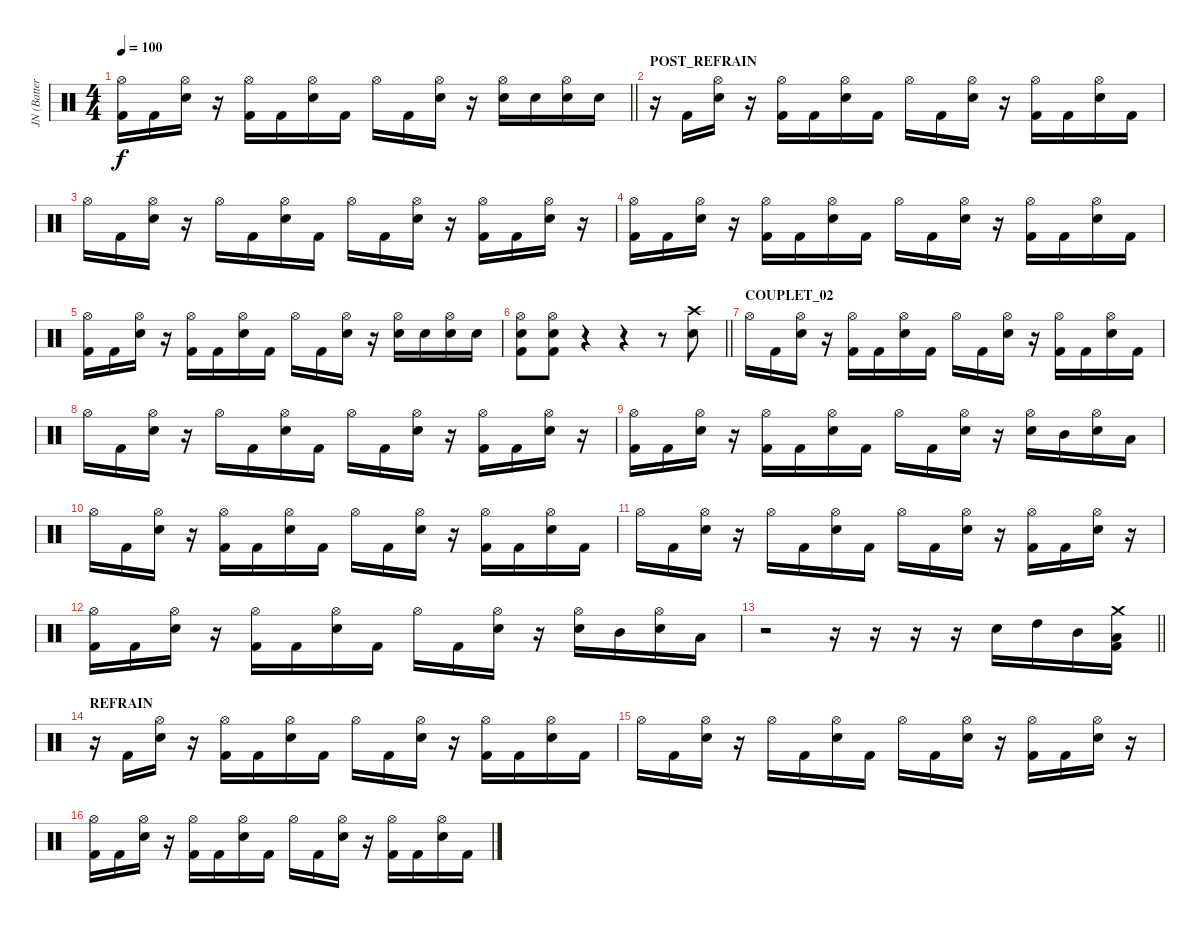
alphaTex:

\track ("JN (Batterie)" "JN (Batter") {instrument percussion}
\staff {score}
\articulation defaults
\ts (4 4)
\tempo 100
\clef neutral
\barLineRight lightlight
\ks c
("Hi-Hat (open)" "Kick (hit) 2").16{dy f} "Kick (hit) 2".16 ("Hi-Hat (open)" "Electric Snare (hit)").16 r.16 ("Hi-Hat (open)" "Kick (hit) 2").16 "Kick (hit) 2".16 ("Hi-Hat (open)" "Electric Snare (hit)").16 "Kick (hit) 2".16 "Hi-Hat (open)".16 "Kick (hit) 2".16 ("Hi-Hat (open)" "Electric Snare (hit)").16 r.16 ("Hi-Hat (open)" "Electric Snare (hit)").16 "Electric Snare (hit)".16 ("Hi-Hat (open)" "Electric Snare (hit)").16 "Electric Snare (hit)".16 |
\section ("" "POST_REFRAIN")
r.16 "Kick (hit) 2".16 ("Hi-Hat (open)" "Electric Snare (hit)").16 r.16 ("Hi-Hat (open)" "Kick (hit) 2").16 "Kick (hit) 2".16 ("Hi-Hat (open)" "Electric Snare (hit)").16 "Kick (hit) 2".16 "Hi-Hat (open)".16 "Kick (hit) 2".16 ("Hi-Hat (open)" "Electric Snare (hit)").16 r.16 ("Hi-Hat (open)" "Kick (hit) 2").16 "Kick (hit) 2".16 ("Hi-Hat (open)" "Electric Snare (hit)").16 "Kick (hit) 2".16 |
"Hi-Hat (open)".16 "Kick (hit) 2".16 ("Hi-Hat (open)" "Electric Snare (hit)").16 r.16 "Hi-Hat (open)".16 "Kick (hit) 2".16 ("Hi-Hat (open)" "Electric Snare (hit)").16 "Kick (hit) 2".16 "Hi-Hat (open)".16 "Kick (hit) 2".16 ("Hi-Hat (open)" "Electric Snare (hit)").16 r.16 ("Hi-Hat (open)" "Kick (hit) 2").16 "Kick (hit) 2".16 ("Hi-Hat (open)" "Electric Snare (hit)").16 r.16 |
("Hi-Hat (open)" "Kick (hit) 2").16 "Kick (hit) 2".16 ("Hi-Hat (open)" "Electric Snare (hit)").16 r.16 ("Hi-Hat (open)" "Kick (hit) 2").16 "Kick (hit) 2".16 ("Hi-Hat (open)" "Electric Snare (hit)").16 "Kick (hit) 2".16 "Hi-Hat (open)".16 "Kick (hit) 2".16 ("Hi-Hat (open)" "Electric Snare (hit)").16 r.16 ("Hi-Hat (open)" "Kick (hit) 2").16 "Kick (hit) 2".16 ("Hi-Hat (open)" "Electric Snare (hit)").16 "Kick (hit) 2".16 |
("Hi-Hat (open)" "Kick (hit) 2").16 "Kick (hit) 2".16 ("Hi-Hat (open)" "Electric Snare (hit)").16 r.16 ("Hi-Hat (open)" "Kick (hit) 2").16 "Kick (hit) 2".16 ("Hi-Hat (open)" "Electric Snare (hit)").16 "Kick (hit) 2".16 "Hi-Hat (open)".16 "Kick (hit) 2".16 ("Hi-Hat (open)" "Electric Snare (hit)").16 r.16 ("Hi-Hat (open)" "Electric Snare (hit)").16 "Electric Snare (hit)".16 ("Hi-Hat (open)" "Electric Snare (hit)").16 "Electric Snare (hit)".16 |
\barLineRight lightlight
("Kick (hit) 2" "Hi-Hat (open)" "Electric Snare (hit)").8 ("Kick (hit) 2" "Hi-Hat (open)" "Electric Snare (hit)").8 r.4 r.4 r.8 ("Crash high (hit)" "Electric Snare (hit)").8 |
\section ("" "COUPLET_02")
"Hi-Hat (open)".16 "Kick (hit) 2".16 ("Hi-Hat (open)" "Electric Snare (hit)").16 r.16 ("Hi-Hat (open)" "Kick (hit) 2").16 "Kick (hit) 2".16 ("Hi-Hat (open)" "Electric Snare (hit)").16 "Kick (hit) 2".16 "Hi-Hat (open)".16 "Kick (hit) 2".16 ("Hi-Hat (open)" "Electric Snare (hit)").16 r.16 ("Hi-Hat (open)" "Kick (hit) 2").16 "Kick (hit) 2".16 ("Hi-Hat (open)" "Electric Snare (hit)").16 "Kick (hit) 2".16 |
"Hi-Hat (open)".16 "Kick (hit) 2".16 ("Hi-Hat (open)" "Electric Snare (hit)").16 r.16 "Hi-Hat (open)".16 "Kick (hit) 2".16 ("Hi-Hat (open)" "Electric Snare (hit)").16 "Kick (hit) 2".16 "Hi-Hat (open)".16 "Kick (hit) 2".16 ("Hi-Hat (open)" "Electric Snare (hit)").16 r.16 ("Hi-Hat (open)" "Kick (hit) 2").16 "Kick (hit) 2".16 ("Hi-Hat (open)" "Electric Snare (hit)").16 r.16 |
("Hi-Hat (open)" "Kick (hit) 2").16 "Kick (hit) 2".16 ("Hi-Hat (open)" "Electric Snare (hit)").16 r.16 ("Hi-Hat (open)" "Kick (hit) 2").16 "Kick (hit) 2".16 ("Hi-Hat (open)" "Electric Snare (hit)").16 "Kick (hit) 2".16 "Hi-Hat (open)".16 "Kick (hit) 2".16 ("Hi-Hat (open)" "Electric Snare (hit)").16 r.16 ("Hi-Hat (open)" "Electric Snare (hit)").16 "Mid Tom (hit)".16 ("Hi-Hat (open)" "Electric Snare (hit)").16 "Low Tom (hit)".16 |
"Hi-Hat (open)".16 "Kick (hit) 2".16 ("Hi-Hat (open)" "Electric Snare (hit)").16 r.16 ("Hi-Hat (open)" "Kick (hit) 2").16 "Kick (hit) 2".16 ("Hi-Hat (open)" "Electric Snare (hit)").16 "Kick (hit) 2".16 "Hi-Hat (open)".16 "Kick (hit) 2".16 ("Hi-Hat (open)" "Electric Snare (hit)").16 r.16 ("Hi-Hat (open)" "Kick (hit) 2").16 "Kick (hit) 2".16 ("Hi-Hat (open)" "Electric Snare (hit)").16 "Kick (hit) 2".16 |
"Hi-Hat (open)".16 "Kick (hit) 2".16 ("Hi-Hat (open)" "Electric Snare (hit)").16 r.16 "Hi-Hat (open)".16 "Kick (hit) 2".16 ("Hi-Hat (open)" "Electric Snare (hit)").16 "Kick (hit) 2".16 "Hi-Hat (open)".16 "Kick (hit) 2".16 ("Hi-Hat (open)" "Electric Snare (hit)").16 r.16 ("Hi-Hat (open)" "Kick (hit) 2").16 "Kick (hit) 2".16 ("Hi-Hat (open)" "Electric Snare (hit)").16 r.16 |
("Hi-Hat (open)" "Kick (hit) 2").16 "Kick (hit) 2".16 ("Hi-Hat (open)" "Electric Snare (hit)").16 r.16 ("Hi-Hat (open)" "Kick (hit) 2").16 "Kick (hit) 2".16 ("Hi-Hat (open)" "Electric Snare (hit)").16 "Kick (hit) 2".16 "Hi-Hat (open)".16 "Kick (hit) 2".16 ("Hi-Hat (open)" "Electric Snare (hit)").16 r.16 ("Hi-Hat (open)" "Electric Snare (hit)").16 "Mid Tom (hit)".16 ("Hi-Hat (open)" "Electric Snare (hit)").16 "Low Tom (hit)".16 |
\barLineRight lightlight
r.2 r.16 r.16 r.16 r.16 "Electric Snare (hit)".16 "High Tom (hit)".16 "Mid Tom (hit)".16 ("Crash medium (hit)" "Low Tom (hit)" "Kick (hit) 2").16 |
\section ("" "REFRAIN")
r.16 "Kick (hit) 2".16 ("Hi-Hat (open)" "Electric Snare (hit)").16 r.16 ("Hi-Hat (open)" "Kick (hit) 2").16 "Kick (hit) 2".16 ("Hi-Hat (open)" "Electric Snare (hit)").16 "Kick (hit) 2".16 "Hi-Hat (open)".16 "Kick (hit) 2".16 ("Hi-Hat (open)" "Electric Snare (hit)").16 r.16 ("Hi-Hat (open)" "Kick (hit) 2").16 "Kick (hit) 2".16 ("Hi-Hat (open)" "Electric Snare (hit)").16 "Kick (hit) 2".16 |
"Hi-Hat (open)".16 "Kick (hit) 2".16 ("Hi-Hat (open)" "Electric Snare (hit)").16 r.16 "Hi-Hat (open)".16 "Kick (hit) 2".16 ("Hi-Hat (open)" "Electric Snare (hit)").16 "Kick (hit) 2".16 "Hi-Hat (open)".16 "Kick (hit) 2".16 ("Hi-Hat (open)" "Electric Snare (hit)").16 r.16 ("Hi-Hat (open)" "Kick (hit) 2").16 "Kick (hit) 2".16 ("Hi-Hat (open)" "Electric Snare (hit)").16 r.16 |
("Hi-Hat (open)" "Kick (hit) 2").16 "Kick (hit) 2".16 ("Hi-Hat (open)" "Electric Snare (hit)").16 r.16 ("Hi-Hat (open)" "Kick (hit) 2").16 "Kick (hit) 2".16 ("Hi-Hat (open)" "Electric Snare (hit)").16 "Kick (hit) 2".16 "Hi-Hat (open)".16 "Kick (hit) 2".16 ("Hi-Hat (open)" "Electric Snare (hit)").16 r.16 ("Hi-Hat (open)" "Kick (hit) 2").16 "Kick (hit) 2".16 ("Hi-Hat (open)" "Electric Snare (hit)").16 "Kick (hit) 2".16
